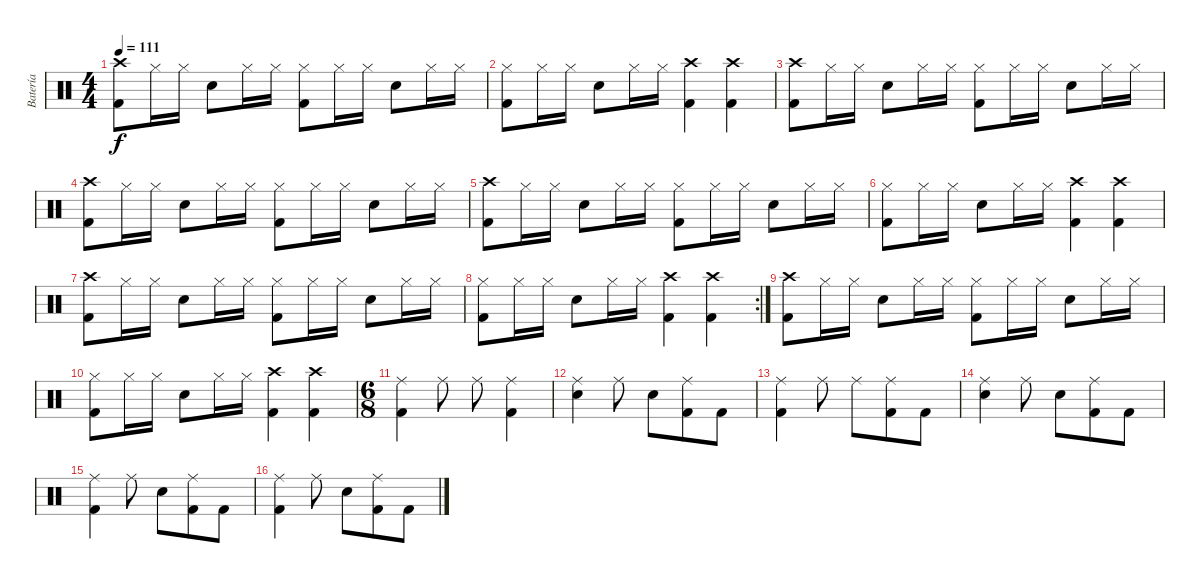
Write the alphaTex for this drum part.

\track ("Batería" "Batería") {instrument percussion}
\staff {score}
\articulation defaults
\ts (4 4)
\tempo 111
\clef neutral
\ks c
("Crash high (hit)" "Kick (hit) 2").8{dy f} "Hi-Hat (closed)".16 "Hi-Hat (closed)".16 "Snare (hit) 2".8 "Hi-Hat (closed)".16 "Hi-Hat (closed)".16 ("Hi-Hat (closed)" "Kick (hit) 2").8 "Hi-Hat (closed)".16 "Hi-Hat (closed)".16 "Snare (hit) 2".8 "Hi-Hat (closed)".16 "Hi-Hat (closed)".16 |
("Hi-Hat (closed)" "Kick (hit) 2").8 "Hi-Hat (closed)".16 "Hi-Hat (closed)".16 "Snare (hit) 2".8 "Hi-Hat (closed)".16 "Hi-Hat (closed)".16 ("Crash high (hit)" "Kick (hit) 2").4 ("Crash high (hit)" "Kick (hit) 2").4 |
("Crash high (hit)" "Kick (hit) 2").8 "Hi-Hat (closed)".16 "Hi-Hat (closed)".16 "Snare (hit) 2".8 "Hi-Hat (closed)".16 "Hi-Hat (closed)".16 ("Hi-Hat (closed)" "Kick (hit) 2").8 "Hi-Hat (closed)".16 "Hi-Hat (closed)".16 "Snare (hit) 2".8 "Hi-Hat (closed)".16 "Hi-Hat (closed)".16 |
("Crash high (hit)" "Kick (hit) 2").8 "Hi-Hat (closed)".16 "Hi-Hat (closed)".16 "Snare (hit) 2".8 "Hi-Hat (closed)".16 "Hi-Hat (closed)".16 ("Hi-Hat (closed)" "Kick (hit) 2").8 "Hi-Hat (closed)".16 "Hi-Hat (closed)".16 "Snare (hit) 2".8 "Hi-Hat (closed)".16 "Hi-Hat (closed)".16 |
("Crash high (hit)" "Kick (hit) 2").8 "Hi-Hat (closed)".16 "Hi-Hat (closed)".16 "Snare (hit) 2".8 "Hi-Hat (closed)".16 "Hi-Hat (closed)".16 ("Hi-Hat (closed)" "Kick (hit) 2").8 "Hi-Hat (closed)".16 "Hi-Hat (closed)".16 "Snare (hit) 2".8 "Hi-Hat (closed)".16 "Hi-Hat (closed)".16 |
("Hi-Hat (closed)" "Kick (hit) 2").8 "Hi-Hat (closed)".16 "Hi-Hat (closed)".16 "Snare (hit) 2".8 "Hi-Hat (closed)".16 "Hi-Hat (closed)".16 ("Crash high (hit)" "Kick (hit) 2").4 ("Crash high (hit)" "Kick (hit) 2").4 |
("Crash high (hit)" "Kick (hit) 2").8 "Hi-Hat (closed)".16 "Hi-Hat (closed)".16 "Snare (hit) 2".8 "Hi-Hat (closed)".16 "Hi-Hat (closed)".16 ("Hi-Hat (closed)" "Kick (hit) 2").8 "Hi-Hat (closed)".16 "Hi-Hat (closed)".16 "Snare (hit) 2".8 "Hi-Hat (closed)".16 "Hi-Hat (closed)".16 |
\rc 2
("Hi-Hat (closed)" "Kick (hit) 2").8 "Hi-Hat (closed)".16 "Hi-Hat (closed)".16 "Snare (hit) 2".8 "Hi-Hat (closed)".16 "Hi-Hat (closed)".16 ("Crash high (hit)" "Kick (hit) 2").4 ("Crash high (hit)" "Kick (hit) 2").4 |
("Crash high (hit)" "Kick (hit) 2").8 "Hi-Hat (closed)".16 "Hi-Hat (closed)".16 "Snare (hit) 2".8 "Hi-Hat (closed)".16 "Hi-Hat (closed)".16 ("Hi-Hat (closed)" "Kick (hit) 2").8 "Hi-Hat (closed)".16 "Hi-Hat (closed)".16 "Snare (hit) 2".8 "Hi-Hat (closed)".16 "Hi-Hat (closed)".16 |
("Hi-Hat (closed)" "Kick (hit) 2").8 "Hi-Hat (closed)".16 "Hi-Hat (closed)".16 "Snare (hit) 2".8 "Hi-Hat (closed)".16 "Hi-Hat (closed)".16 ("Crash high (hit)" "Kick (hit) 2").4 ("Crash high (hit)" "Kick (hit) 2").4 |
\ts (6 8)
("Ride (middle)" "Kick (hit) 2").4 "Ride (middle)".8 "Ride (middle)".8 ("Ride (middle)" "Kick (hit) 2").4 |
("Ride (middle)" "Snare (hit) 2").4 "Ride (middle)".8 "Snare (hit) 2".8 ("Ride (middle)" "Kick (hit) 2").8 "Kick (hit) 2".8 |
("Ride (middle)" "Kick (hit) 2").4 "Ride (middle)".8 "Ride (middle)".8 ("Ride (middle)" "Kick (hit) 2").8 "Kick (hit) 2".8 |
("Ride (middle)" "Snare (hit) 2").4 "Ride (middle)".8 "Snare (hit) 2".8 ("Ride (middle)" "Kick (hit) 2").8 "Kick (hit) 2".8 |
("Ride (middle)" "Kick (hit) 2").4 "Ride (middle)".8 "Snare (hit) 2".8 ("Ride (middle)" "Kick (hit) 2").8 "Kick (hit) 2".8 |
("Ride (middle)" "Kick (hit) 2").4 "Ride (middle)".8 "Snare (hit) 2".8 ("Ride (middle)" "Kick (hit) 2").8 "Kick (hit) 2".8
